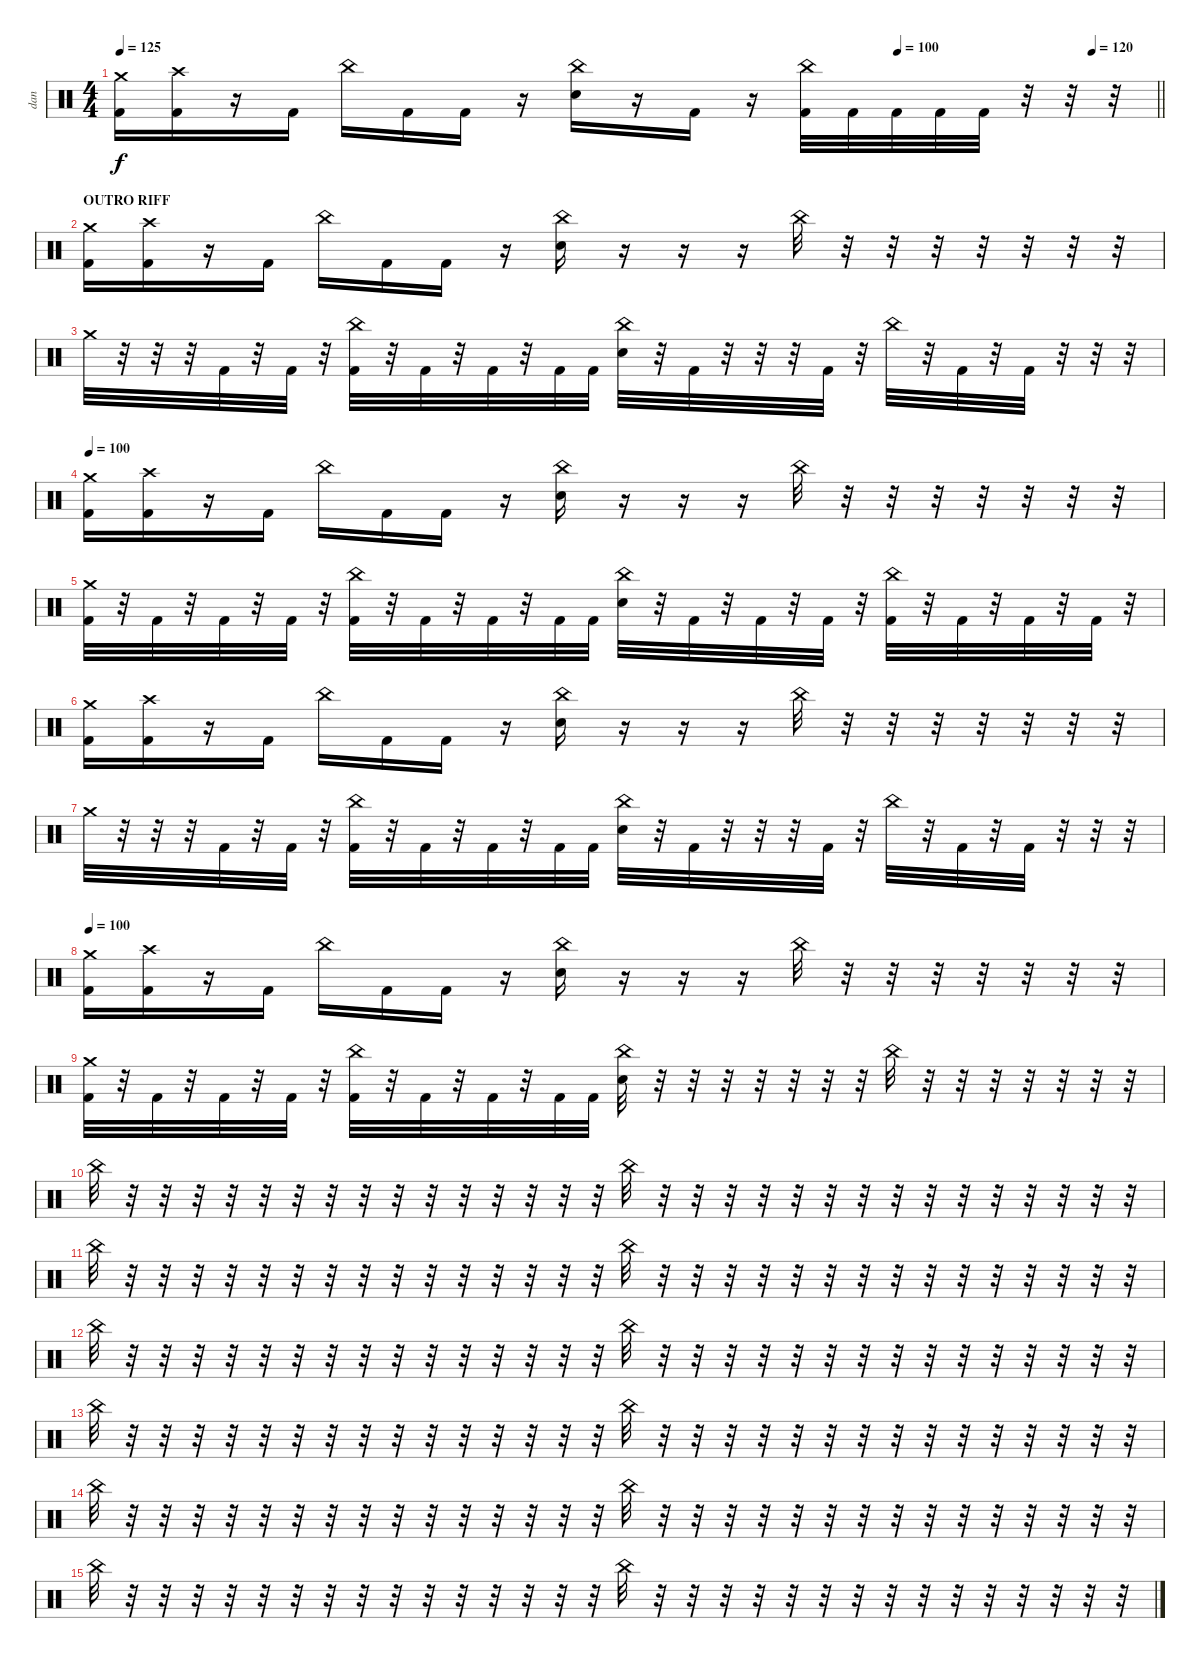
\track ("dan" "dan") {instrument percussion}
\staff {score}
\articulation defaults
\ts (4 4)
\tempo 125
\tempo (120 0.9375)
\tempo (100 0.75)
\clef neutral
\barLineRight lightlight
\ks c
("Crash medium (hit)" "Kick (hit) 2").16{dy f} ("Crash high (hit)" "Kick (hit) 2").16 r.16 "Kick (hit) 2".16 "China (hit)".16 "Kick (hit) 2".16 "Kick (hit) 2".16 r.16 ("China (hit)" "Electric Snare (hit)").16 r.16 "Kick (hit) 2".16 r.16 ("China (hit)" "Kick (hit) 2").32 "Kick (hit) 2".32 "Kick (hit) 2".32 "Kick (hit) 2".32 "Kick (hit) 2".32 r.32 r.32 r.32 |
\section ("" "OUTRO RIFF")
("Crash medium (hit)" "Kick (hit) 2").16 ("Crash high (hit)" "Kick (hit) 2").16 r.16 "Kick (hit) 2".16 "China (hit)".16 "Kick (hit) 2".16 "Kick (hit) 2".16 r.16 ("China (hit)" "Electric Snare (hit)").16 r.16 r.16 r.16 "China (hit)".32 r.32 r.32 r.32 r.32 r.32 r.32 r.32 |
"Crash medium (hit)".32 r.32 r.32 r.32 "Kick (hit) 2".32 r.32 "Kick (hit) 2".32 r.32 ("China (hit)" "Kick (hit) 2").32 r.32 "Kick (hit) 2".32 r.32 "Kick (hit) 2".32 r.32 "Kick (hit) 2".32 "Kick (hit) 2".32 ("China (hit)" "Electric Snare (hit)").32 r.32 "Kick (hit) 2".32 r.32 r.32 r.32 "Kick (hit) 2".32 r.32 "China (hit)".32 r.32 "Kick (hit) 2".32 r.32 "Kick (hit) 2".32 r.32 r.32 r.32 |
\tempo 100
("Crash medium (hit)" "Kick (hit) 2").16 ("Crash high (hit)" "Kick (hit) 2").16 r.16 "Kick (hit) 2".16 "China (hit)".16 "Kick (hit) 2".16 "Kick (hit) 2".16 r.16 ("China (hit)" "Electric Snare (hit)").16 r.16 r.16 r.16 "China (hit)".32 r.32 r.32 r.32 r.32 r.32 r.32 r.32 |
("Crash medium (hit)" "Kick (hit) 2").32 r.32 "Kick (hit) 2".32 r.32 "Kick (hit) 2".32 r.32 "Kick (hit) 2".32 r.32 ("China (hit)" "Kick (hit) 2").32 r.32 "Kick (hit) 2".32 r.32 "Kick (hit) 2".32 r.32 "Kick (hit) 2".32 "Kick (hit) 2".32 ("China (hit)" "Electric Snare (hit)").32 r.32 "Kick (hit) 2".32 r.32 "Kick (hit) 2".32 r.32 "Kick (hit) 2".32 r.32 ("China (hit)" "Kick (hit) 2").32 r.32 "Kick (hit) 2".32 r.32 "Kick (hit) 2".32 r.32 "Kick (hit) 2".32 r.32 |
("Crash medium (hit)" "Kick (hit) 2").16 ("Crash high (hit)" "Kick (hit) 2").16 r.16 "Kick (hit) 2".16 "China (hit)".16 "Kick (hit) 2".16 "Kick (hit) 2".16 r.16 ("China (hit)" "Electric Snare (hit)").16 r.16 r.16 r.16 "China (hit)".32 r.32 r.32 r.32 r.32 r.32 r.32 r.32 |
"Crash medium (hit)".32 r.32 r.32 r.32 "Kick (hit) 2".32 r.32 "Kick (hit) 2".32 r.32 ("China (hit)" "Kick (hit) 2").32 r.32 "Kick (hit) 2".32 r.32 "Kick (hit) 2".32 r.32 "Kick (hit) 2".32 "Kick (hit) 2".32 ("China (hit)" "Electric Snare (hit)").32 r.32 "Kick (hit) 2".32 r.32 r.32 r.32 "Kick (hit) 2".32 r.32 "China (hit)".32 r.32 "Kick (hit) 2".32 r.32 "Kick (hit) 2".32 r.32 r.32 r.32 |
\tempo 100
("Crash medium (hit)" "Kick (hit) 2").16 ("Crash high (hit)" "Kick (hit) 2").16 r.16 "Kick (hit) 2".16 "China (hit)".16 "Kick (hit) 2".16 "Kick (hit) 2".16 r.16 ("China (hit)" "Electric Snare (hit)").16 r.16 r.16 r.16 "China (hit)".32 r.32 r.32 r.32 r.32 r.32 r.32 r.32 |
("Crash medium (hit)" "Kick (hit) 2").32 r.32 "Kick (hit) 2".32 r.32 "Kick (hit) 2".32 r.32 "Kick (hit) 2".32 r.32 ("China (hit)" "Kick (hit) 2").32 r.32 "Kick (hit) 2".32 r.32 "Kick (hit) 2".32 r.32 "Kick (hit) 2".32 "Kick (hit) 2".32 ("China (hit)" "Electric Snare (hit)").32 r.32 r.32 r.32 r.32 r.32 r.32 r.32 "China (hit)".32 r.32 r.32 r.32 r.32 r.32 r.32 r.32 |
"China (hit)".32 r.32 r.32 r.32 r.32 r.32 r.32 r.32 r.32 r.32 r.32 r.32 r.32 r.32 r.32 r.32 "China (hit)".32 r.32 r.32 r.32 r.32 r.32 r.32 r.32 r.32 r.32 r.32 r.32 r.32 r.32 r.32 r.32 |
"China (hit)".32 r.32 r.32 r.32 r.32 r.32 r.32 r.32 r.32 r.32 r.32 r.32 r.32 r.32 r.32 r.32 "China (hit)".32 r.32 r.32 r.32 r.32 r.32 r.32 r.32 r.32 r.32 r.32 r.32 r.32 r.32 r.32 r.32 |
"China (hit)".32{volume 0} r.32 r.32 r.32 r.32 r.32 r.32 r.32 r.32 r.32 r.32 r.32 r.32 r.32 r.32 r.32 "China (hit)".32 r.32 r.32 r.32 r.32 r.32 r.32 r.32 r.32 r.32 r.32 r.32 r.32 r.32 r.32 r.32 |
"China (hit)".32 r.32 r.32 r.32 r.32 r.32 r.32 r.32 r.32 r.32 r.32 r.32 r.32 r.32 r.32 r.32 "China (hit)".32 r.32 r.32 r.32 r.32 r.32 r.32 r.32 r.32 r.32 r.32 r.32 r.32 r.32 r.32 r.32 |
"China (hit)".32 r.32 r.32 r.32 r.32 r.32 r.32 r.32 r.32 r.32 r.32 r.32 r.32 r.32 r.32 r.32 "China (hit)".32 r.32 r.32 r.32 r.32 r.32 r.32 r.32 r.32 r.32 r.32 r.32 r.32 r.32 r.32 r.32 |
"China (hit)".32 r.32 r.32 r.32 r.32 r.32 r.32 r.32 r.32 r.32 r.32 r.32 r.32 r.32 r.32 r.32 "China (hit)".32 r.32 r.32 r.32 r.32 r.32 r.32 r.32 r.32 r.32 r.32 r.32 r.32 r.32 r.32 r.32
